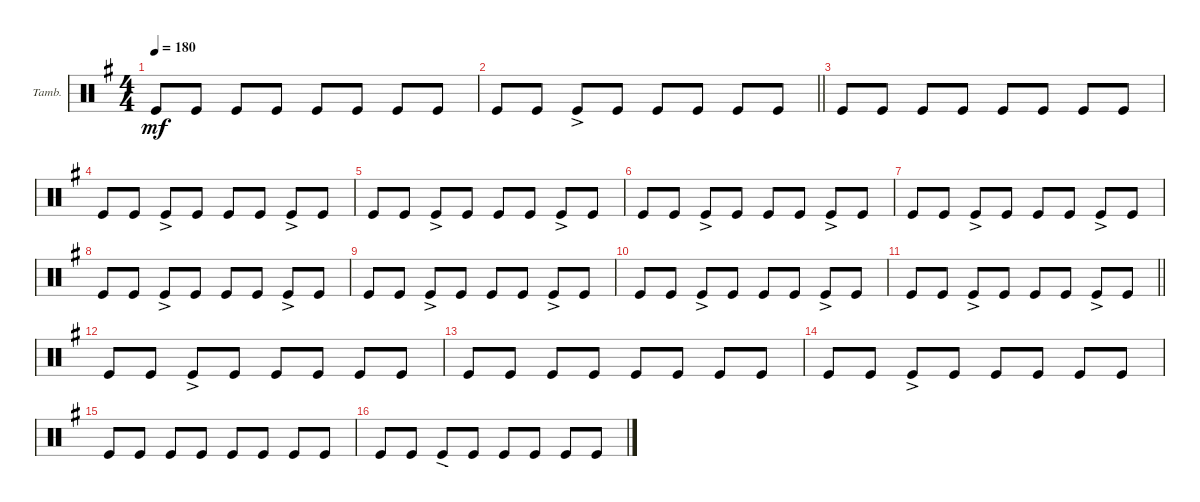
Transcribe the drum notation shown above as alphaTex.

\defaultSystemsLayout 4
\bracketExtendMode groupsimilarinstruments
\firstSystemTrackNameOrientation horizontal
\otherSystemsTrackNameOrientation horizontal
\track ("Tambourine" "Tamb.") {instrument percussion}
\staff {score}
\articulation defaults
\ts (4 4)
\tempo 180
\clef neutral
\ks g "Kick (hit)".8{dy mf} "Kick (hit)".8 "Kick (hit)".8 "Kick (hit)".8 "Kick (hit)".8 "Kick (hit)".8 "Kick (hit)".8 "Kick (hit)".8
|
\barLineRight lightlight "Kick (hit)".8 "Kick (hit)".8 "Kick (hit)"{ac}.8 "Kick (hit)".8 "Kick (hit)".8 "Kick (hit)".8 "Kick (hit)".8 "Kick (hit)".8
|
"Kick (hit)".8 "Kick (hit)".8 "Kick (hit)".8 "Kick (hit)".8 "Kick (hit)".8 "Kick (hit)".8 "Kick (hit)".8 "Kick (hit)".8 |
"Kick (hit)".8 "Kick (hit)".8 "Kick (hit)"{ac}.8 "Kick (hit)".8 "Kick (hit)".8 "Kick (hit)".8 "Kick (hit)"{ac}.8 "Kick (hit)".8 |
"Kick (hit)".8 "Kick (hit)".8 "Kick (hit)"{ac}.8 "Kick (hit)".8 "Kick (hit)".8 "Kick (hit)".8 "Kick (hit)"{ac}.8 "Kick (hit)".8 |
"Kick (hit)".8 "Kick (hit)".8 "Kick (hit)"{ac}.8 "Kick (hit)".8 "Kick (hit)".8 "Kick (hit)".8 "Kick (hit)"{ac}.8 "Kick (hit)".8 |
"Kick (hit)".8 "Kick (hit)".8 "Kick (hit)"{ac}.8 "Kick (hit)".8 "Kick (hit)".8 "Kick (hit)".8 "Kick (hit)"{ac}.8 "Kick (hit)".8 |
"Kick (hit)".8 "Kick (hit)".8 "Kick (hit)"{ac}.8 "Kick (hit)".8 "Kick (hit)".8 "Kick (hit)".8 "Kick (hit)"{ac}.8 "Kick (hit)".8 |
"Kick (hit)".8 "Kick (hit)".8 "Kick (hit)"{ac}.8 "Kick (hit)".8 "Kick (hit)".8 "Kick (hit)".8 "Kick (hit)"{ac}.8 "Kick (hit)".8 |
"Kick (hit)".8 "Kick (hit)".8 "Kick (hit)"{ac}.8 "Kick (hit)".8 "Kick (hit)".8 "Kick (hit)".8 "Kick (hit)"{ac}.8 "Kick (hit)".8 |
\barLineRight lightlight "Kick (hit)".8 "Kick (hit)".8 "Kick (hit)"{ac}.8 "Kick (hit)".8 "Kick (hit)".8 "Kick (hit)".8 "Kick (hit)"{ac}.8 "Kick (hit)".8
|
"Kick (hit)".8 "Kick (hit)".8 "Kick (hit)"{ac}.8 "Kick (hit)".8 "Kick (hit)".8 "Kick (hit)".8 "Kick (hit)".8 "Kick (hit)".8 |
"Kick (hit)".8 "Kick (hit)".8 "Kick (hit)".8 "Kick (hit)".8 "Kick (hit)".8 "Kick (hit)".8 "Kick (hit)".8 "Kick (hit)".8 |
"Kick (hit)".8 "Kick (hit)".8 "Kick (hit)"{ac}.8 "Kick (hit)".8 "Kick (hit)".8 "Kick (hit)".8 "Kick (hit)".8 "Kick (hit)".8 |
"Kick (hit)".8 "Kick (hit)".8 "Kick (hit)".8 "Kick (hit)".8 "Kick (hit)".8 "Kick (hit)".8 "Kick (hit)".8 "Kick (hit)".8 |
"Kick (hit)".8 "Kick (hit)".8 "Kick (hit)"{ac}.8 "Kick (hit)".8 "Kick (hit)".8 "Kick (hit)".8 "Kick (hit)".8 "Kick (hit)".8
